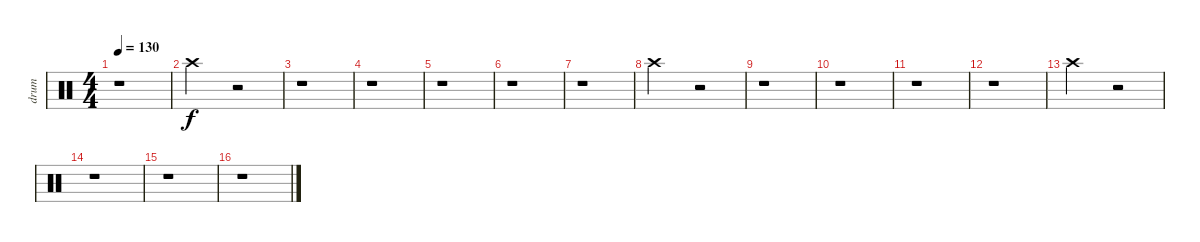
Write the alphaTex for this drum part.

\track ("drum" "drum") {instrument percussion}
\staff {score}
\articulation defaults
\ts (4 4)
\tempo 130
\clef neutral
\ks c
r.1{dy f} |
"Crash high (hit)".2 r.2 |
r.1 |
r.1 |
r.1 |
r.1 |
r.1 |
"Crash high (hit)".2 r.2 |
r.1 |
r.1 |
r.1 |
r.1 |
"Crash high (hit)".2 r.2 |
r.1 |
r.1 |
r.1
